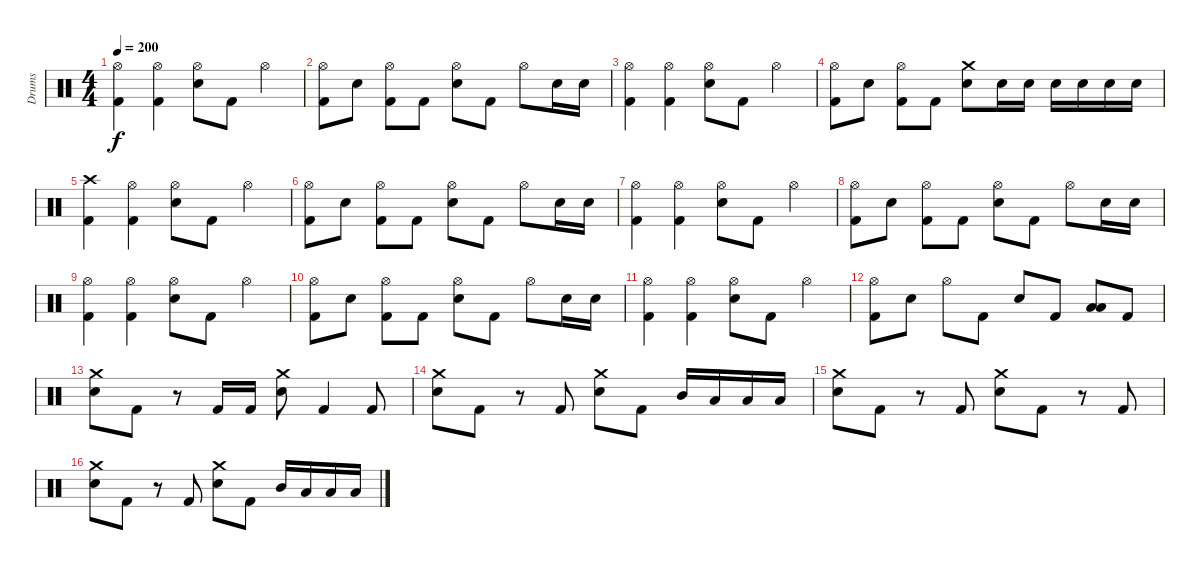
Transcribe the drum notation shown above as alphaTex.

\track ("Drums" "Drums") {instrument percussion}
\staff {score}
\articulation defaults
\ts (4 4)
\tempo 200
\clef neutral
\ks c
("Hi-Hat (open)" "Kick (hit) 2").4{dy f} ("Hi-Hat (open)" "Kick (hit) 2").4 ("Hi-Hat (open)" "Electric Snare (hit)").8 "Kick (hit) 2".8 "Hi-Hat (open)".4 |
("Hi-Hat (open)" "Kick (hit) 2").8 "Electric Snare (hit)".8 ("Hi-Hat (open)" "Kick (hit) 2").8 "Kick (hit) 2".8 ("Hi-Hat (open)" "Electric Snare (hit)").8 "Kick (hit) 2".8 "Hi-Hat (open)".8 "Electric Snare (hit)".16 "Electric Snare (hit)".16 |
("Hi-Hat (open)" "Kick (hit) 2").4 ("Hi-Hat (open)" "Kick (hit) 2").4 ("Hi-Hat (open)" "Electric Snare (hit)").8 "Kick (hit) 2".8 "Hi-Hat (open)".4 |
("Hi-Hat (open)" "Kick (hit) 2").8 "Electric Snare (hit)".8 ("Hi-Hat (open)" "Kick (hit) 2").8 "Kick (hit) 2".8 ("Crash medium (hit)" "Electric Snare (hit)").8 "Electric Snare (hit)".16 "Electric Snare (hit)".16 "Electric Snare (hit)".16 "Electric Snare (hit)".16 "Electric Snare (hit)".16 "Electric Snare (hit)".16 |
("Crash high (hit)" "Kick (hit) 2").4 ("Hi-Hat (open)" "Kick (hit) 2").4 ("Hi-Hat (open)" "Electric Snare (hit)").8 "Kick (hit) 2".8 "Hi-Hat (open)".4 |
("Hi-Hat (open)" "Kick (hit) 2").8 "Electric Snare (hit)".8 ("Hi-Hat (open)" "Kick (hit) 2").8 "Kick (hit) 2".8 ("Hi-Hat (open)" "Electric Snare (hit)").8 "Kick (hit) 2".8 "Hi-Hat (open)".8 "Electric Snare (hit)".16 "Electric Snare (hit)".16 |
("Hi-Hat (open)" "Kick (hit) 2").4 ("Hi-Hat (open)" "Kick (hit) 2").4 ("Hi-Hat (open)" "Electric Snare (hit)").8 "Kick (hit) 2".8 "Hi-Hat (open)".4 |
("Hi-Hat (open)" "Kick (hit) 2").8 "Electric Snare (hit)".8 ("Hi-Hat (open)" "Kick (hit) 2").8 "Kick (hit) 2".8 ("Hi-Hat (open)" "Electric Snare (hit)").8 "Kick (hit) 2".8 "Hi-Hat (open)".8 "Electric Snare (hit)".16 "Electric Snare (hit)".16 |
("Hi-Hat (open)" "Kick (hit) 2").4 ("Hi-Hat (open)" "Kick (hit) 2").4 ("Hi-Hat (open)" "Electric Snare (hit)").8 "Kick (hit) 2".8 "Hi-Hat (open)".4 |
("Hi-Hat (open)" "Kick (hit) 2").8 "Electric Snare (hit)".8 ("Hi-Hat (open)" "Kick (hit) 2").8 "Kick (hit) 2".8 ("Hi-Hat (open)" "Electric Snare (hit)").8 "Kick (hit) 2".8 "Hi-Hat (open)".8 "Electric Snare (hit)".16 "Electric Snare (hit)".16 |
("Hi-Hat (open)" "Kick (hit) 2").4 ("Hi-Hat (open)" "Kick (hit) 2").4 ("Hi-Hat (open)" "Electric Snare (hit)").8 "Kick (hit) 2".8 "Hi-Hat (open)".4 |
("Hi-Hat (open)" "Kick (hit) 2").8 "Electric Snare (hit)".8 "Hi-Hat (open)".8 "Kick (hit) 2".8 "Electric Snare (hit)".8 "Kick (hit) 2".8 ("Low Tom (hit)" "Low Floor Tom (hit)").8 "Kick (hit) 2".8 |
("Crash medium (hit)" "Electric Snare (hit)").8 "Kick (hit) 2".8 r.8 "Kick (hit) 2".16 "Kick (hit) 2".16 ("Crash medium (hit)" "Electric Snare (hit)").8 "Kick (hit) 2".4 "Kick (hit) 2".8 |
("Crash medium (hit)" "Electric Snare (hit)").8 "Kick (hit) 2".8 r.8 "Kick (hit) 2".8 ("Crash medium (hit)" "Electric Snare (hit)").8 "Kick (hit) 2".8 "Mid Tom (hit)".16 "Low Tom (hit)".16 "Low Floor Tom (hit)".16 "Low Floor Tom (hit)".16 |
("Crash medium (hit)" "Electric Snare (hit)").8 "Kick (hit) 2".8 r.8 "Kick (hit) 2".8 ("Crash medium (hit)" "Electric Snare (hit)").8 "Kick (hit) 2".8 r.8 "Kick (hit) 2".8 |
("Crash medium (hit)" "Electric Snare (hit)").8 "Kick (hit) 2".8 r.8 "Kick (hit) 2".8 ("Crash medium (hit)" "Electric Snare (hit)").8 "Kick (hit) 2".8 "Mid Tom (hit)".16 "Low Tom (hit)".16 "Low Floor Tom (hit)".16 "Low Floor Tom (hit)".16
